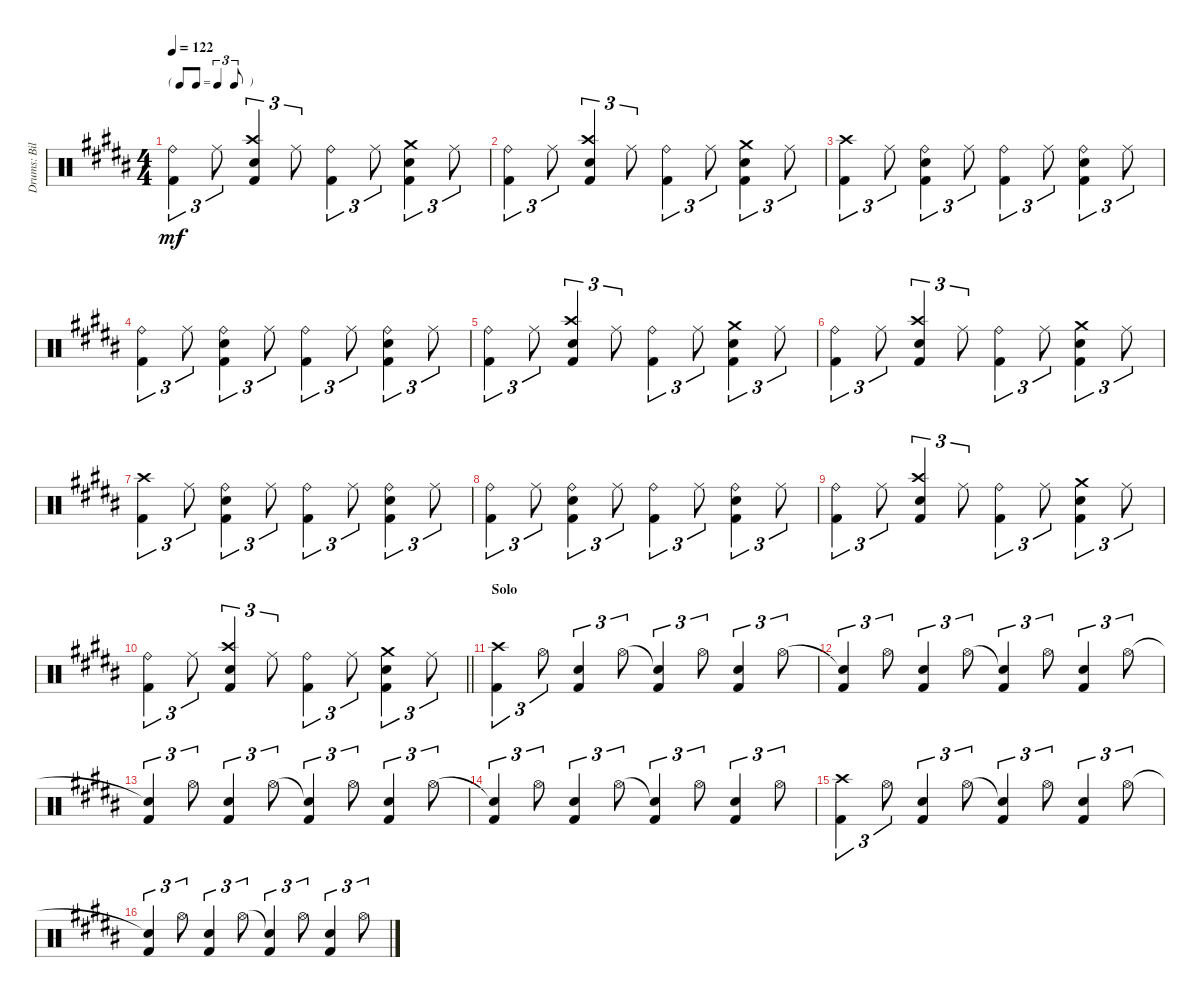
\track ("Drums: Bill" "Drums: Bil") {instrument percussion}
\staff {score}
\articulation defaults
\ts (4 4)
\tf triplet8th
\tempo 122
\clef neutral
\ks b
("Ride (bell)" "Kick (hit) 2").4{tu (3 2) dy mf} "Ride (middle)".8{tu (3 2)} ("Crash high (hit)" "Electric Snare (hit)" "Kick (hit) 2").4{tu (3 2)} "Ride (middle)".8{tu (3 2)} ("Ride (bell)" "Kick (hit) 2").4{tu (3 2)} "Ride (middle)".8{tu (3 2)} ("Crash medium (hit)" "Electric Snare (hit)" "Kick (hit) 2").4{tu (3 2)} "Ride (middle)".8{tu (3 2)} |
("Ride (bell)" "Kick (hit) 2").4{tu (3 2)} "Ride (middle)".8{tu (3 2)} ("Crash high (hit)" "Electric Snare (hit)" "Kick (hit) 2").4{tu (3 2)} "Ride (middle)".8{tu (3 2)} ("Ride (bell)" "Kick (hit) 2").4{tu (3 2)} "Ride (middle)".8{tu (3 2)} ("Crash medium (hit)" "Electric Snare (hit)" "Kick (hit) 2").4{tu (3 2)} "Ride (middle)".8{tu (3 2)} |
("Crash high (hit)" "Kick (hit) 2").4{tu (3 2)} "Ride (middle)".8{tu (3 2)} ("Ride (bell)" "Electric Snare (hit)" "Kick (hit) 2").4{tu (3 2)} "Ride (middle)".8{tu (3 2)} ("Ride (bell)" "Kick (hit) 2").4{tu (3 2)} "Ride (middle)".8{tu (3 2)} ("Ride (bell)" "Electric Snare (hit)" "Kick (hit) 2").4{tu (3 2)} "Ride (middle)".8{tu (3 2)} |
("Ride (bell)" "Kick (hit) 2").4{tu (3 2)} "Ride (middle)".8{tu (3 2)} ("Ride (bell)" "Electric Snare (hit)" "Kick (hit) 2").4{tu (3 2)} "Ride (middle)".8{tu (3 2)} ("Ride (bell)" "Kick (hit) 2").4{tu (3 2)} "Ride (middle)".8{tu (3 2)} ("Ride (bell)" "Electric Snare (hit)" "Kick (hit) 2").4{tu (3 2)} "Ride (middle)".8{tu (3 2)} |
("Ride (bell)" "Kick (hit) 2").4{tu (3 2)} "Ride (middle)".8{tu (3 2)} ("Crash high (hit)" "Electric Snare (hit)" "Kick (hit) 2").4{tu (3 2)} "Ride (middle)".8{tu (3 2)} ("Ride (bell)" "Kick (hit) 2").4{tu (3 2)} "Ride (middle)".8{tu (3 2)} ("Crash medium (hit)" "Electric Snare (hit)" "Kick (hit) 2").4{tu (3 2)} "Ride (middle)".8{tu (3 2)} |
("Ride (bell)" "Kick (hit) 2").4{tu (3 2)} "Ride (middle)".8{tu (3 2)} ("Crash high (hit)" "Electric Snare (hit)" "Kick (hit) 2").4{tu (3 2)} "Ride (middle)".8{tu (3 2)} ("Ride (bell)" "Kick (hit) 2").4{tu (3 2)} "Ride (middle)".8{tu (3 2)} ("Crash medium (hit)" "Electric Snare (hit)" "Kick (hit) 2").4{tu (3 2)} "Ride (middle)".8{tu (3 2)} |
("Crash high (hit)" "Kick (hit) 2").4{tu (3 2)} "Ride (middle)".8{tu (3 2)} ("Ride (bell)" "Electric Snare (hit)" "Kick (hit) 2").4{tu (3 2)} "Ride (middle)".8{tu (3 2)} ("Ride (bell)" "Kick (hit) 2").4{tu (3 2)} "Ride (middle)".8{tu (3 2)} ("Ride (bell)" "Electric Snare (hit)" "Kick (hit) 2").4{tu (3 2)} "Ride (middle)".8{tu (3 2)} |
("Ride (bell)" "Kick (hit) 2").4{tu (3 2)} "Ride (middle)".8{tu (3 2)} ("Ride (bell)" "Electric Snare (hit)" "Kick (hit) 2").4{tu (3 2)} "Ride (middle)".8{tu (3 2)} ("Ride (bell)" "Kick (hit) 2").4{tu (3 2)} "Ride (middle)".8{tu (3 2)} ("Ride (bell)" "Electric Snare (hit)" "Kick (hit) 2").4{tu (3 2)} "Ride (middle)".8{tu (3 2)} |
("Ride (bell)" "Kick (hit) 2").4{tu (3 2)} "Ride (middle)".8{tu (3 2)} ("Crash high (hit)" "Electric Snare (hit)" "Kick (hit) 2").4{tu (3 2)} "Ride (middle)".8{tu (3 2)} ("Ride (bell)" "Kick (hit) 2").4{tu (3 2)} "Ride (middle)".8{tu (3 2)} ("Crash medium (hit)" "Electric Snare (hit)" "Kick (hit) 2").4{tu (3 2)} "Ride (middle)".8{tu (3 2)} |
\barLineRight lightlight
("Ride (bell)" "Kick (hit) 2").4{tu (3 2)} "Ride (middle)".8{tu (3 2)} ("Crash high (hit)" "Electric Snare (hit)" "Kick (hit) 2").4{tu (3 2)} "Ride (middle)".8{tu (3 2)} ("Ride (bell)" "Kick (hit) 2").4{tu (3 2)} "Ride (middle)".8{tu (3 2)} ("Crash medium (hit)" "Electric Snare (hit)" "Kick (hit) 2").4{tu (3 2)} "Ride (middle)".8{tu (3 2)} |
\section ("" "Solo")
("Crash high (hit)" "Kick (hit) 2").4{tu (3 2)} "Hi-Hat (open)".8{tu (3 2)} ("Electric Snare (hit)" "Kick (hit) 2").4{tu (3 2)} "Hi-Hat (open)".8{tu (3 2)} ("Snare (hit)"{t} "Kick (hit) 2").4{tu (3 2)} "Hi-Hat (open)".8{tu (3 2)} ("Electric Snare (hit)" "Kick (hit) 2").4{tu (3 2)} "Hi-Hat (open)".8{tu (3 2)} |
("Snare (hit)"{t} "Kick (hit) 2").4{tu (3 2)} "Hi-Hat (open)".8{tu (3 2)} ("Electric Snare (hit)" "Kick (hit) 2").4{tu (3 2)} "Hi-Hat (open)".8{tu (3 2)} ("Snare (hit)"{t} "Kick (hit) 2").4{tu (3 2)} "Hi-Hat (open)".8{tu (3 2)} ("Electric Snare (hit)" "Kick (hit) 2").4{tu (3 2)} "Hi-Hat (open)".8{tu (3 2)} |
("Snare (hit)"{t} "Kick (hit) 2").4{tu (3 2)} "Hi-Hat (open)".8{tu (3 2)} ("Electric Snare (hit)" "Kick (hit) 2").4{tu (3 2)} "Hi-Hat (open)".8{tu (3 2)} ("Snare (hit)"{t} "Kick (hit) 2").4{tu (3 2)} "Hi-Hat (open)".8{tu (3 2)} ("Electric Snare (hit)" "Kick (hit) 2").4{tu (3 2)} "Hi-Hat (open)".8{tu (3 2)} |
("Snare (hit)"{t} "Kick (hit) 2").4{tu (3 2)} "Hi-Hat (open)".8{tu (3 2)} ("Electric Snare (hit)" "Kick (hit) 2").4{tu (3 2)} "Hi-Hat (open)".8{tu (3 2)} ("Snare (hit)"{t} "Kick (hit) 2").4{tu (3 2)} "Hi-Hat (open)".8{tu (3 2)} ("Electric Snare (hit)" "Kick (hit) 2").4{tu (3 2)} "Hi-Hat (open)".8{tu (3 2)} |
("Crash high (hit)" "Kick (hit) 2").4{tu (3 2)} "Hi-Hat (open)".8{tu (3 2)} ("Electric Snare (hit)" "Kick (hit) 2").4{tu (3 2)} "Hi-Hat (open)".8{tu (3 2)} ("Snare (hit)"{t} "Kick (hit) 2").4{tu (3 2)} "Hi-Hat (open)".8{tu (3 2)} ("Electric Snare (hit)" "Kick (hit) 2").4{tu (3 2)} "Hi-Hat (open)".8{tu (3 2)} |
("Snare (hit)"{t} "Kick (hit) 2").4{tu (3 2)} "Hi-Hat (open)".8{tu (3 2)} ("Electric Snare (hit)" "Kick (hit) 2").4{tu (3 2)} "Hi-Hat (open)".8{tu (3 2)} ("Snare (hit)"{t} "Kick (hit) 2").4{tu (3 2)} "Hi-Hat (open)".8{tu (3 2)} ("Electric Snare (hit)" "Kick (hit) 2").4{tu (3 2)} "Hi-Hat (open)".8{tu (3 2)}
